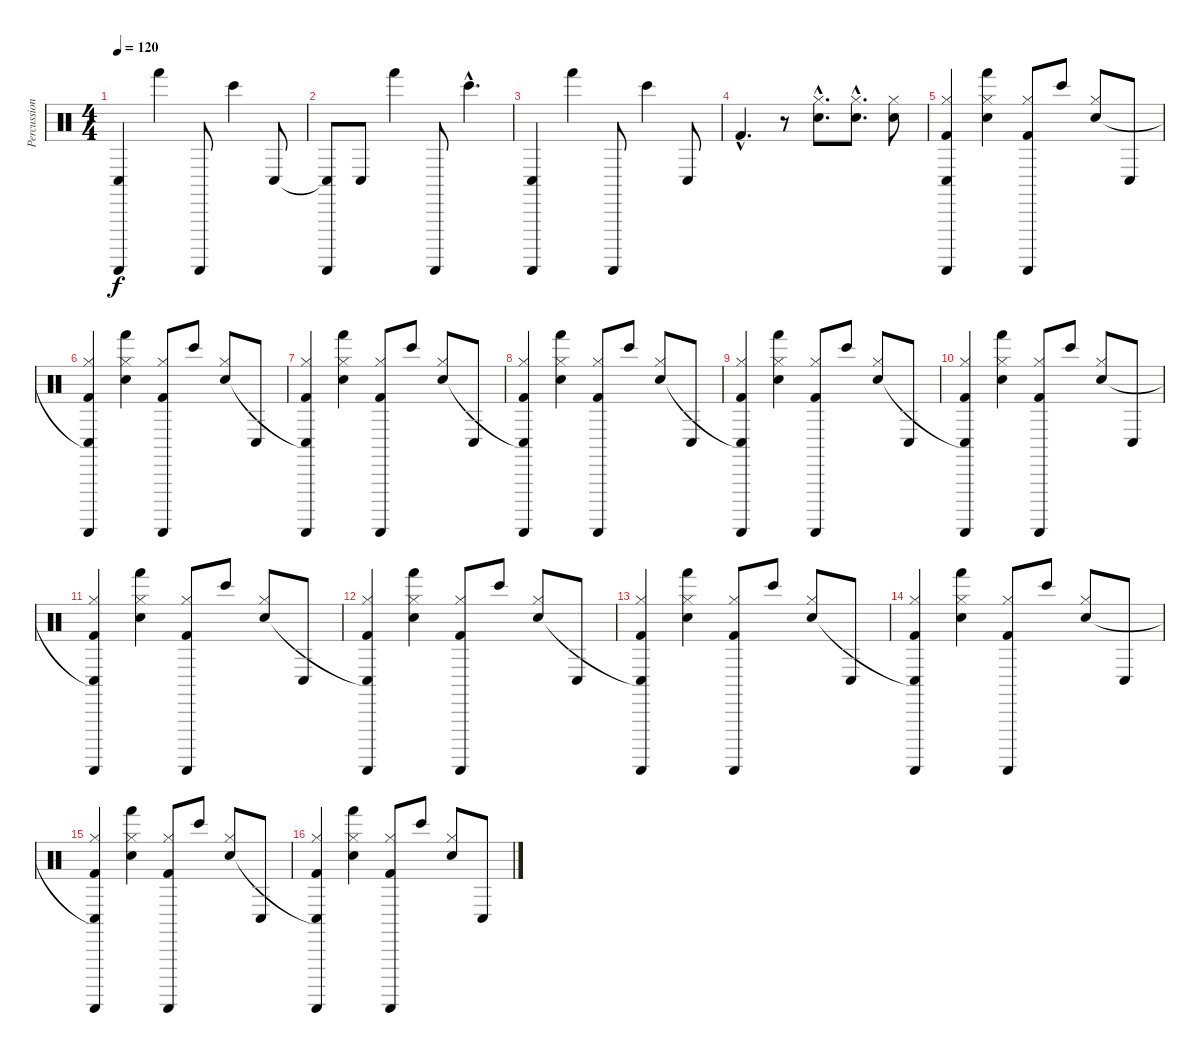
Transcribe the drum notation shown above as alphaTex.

\track ("Percussions" "Percussion") {instrument percussion}
\staff {score}
\articulation defaults
\ts (4 4)
\tempo 120
\clef neutral
\ks c
("Conga low (hit)" "Guiro (scrap-return)").4{dy f} "Hand (hit)".4 "Guiro (scrap-return)".8 "Bongo High (hit)".4 "Conga low (hit)".8 |
("Conga low (hit)"{t} "Guiro (scrap-return)").8 "Conga low (hit)".8 "Hand (hit)".4 "Guiro (scrap-return)".8 "Bongo High (hit)"{hac}.4{d} |
("Conga low (hit)" "Guiro (scrap-return)").4 "Hand (hit)".4 "Guiro (scrap-return)".8 "Bongo High (hit)".4 "Conga low (hit)".8 |
"Kick (hit) 2"{hac}.4{d} r.8 ("Hi-Hat (closed)"{hac} "Snare (hit) 2"{hac}).8{d} ("Hi-Hat (closed)"{hac} "Snare (hit) 2"{hac}).8{d} ("Hi-Hat (closed)" "Snare (hit) 2").8 |
("Hi-Hat (closed)" "Conga low (hit)" "Guiro (scrap-return)" "Kick (hit) 2").4 ("Hi-Hat (closed)" "Hand (hit)" "Snare (hit) 2").4 ("Hi-Hat (closed)" "Guiro (scrap-return)" "Kick (hit) 2").8 "Bongo High (hit)".8 ("Hi-Hat (closed)" "Snare (hit) 2").8 "Conga low (hit)".8 |
("Hi-Hat (closed)" "Conga low (hit)"{t} "Guiro (scrap-return)" "Kick (hit) 2").4 ("Hi-Hat (closed)" "Hand (hit)" "Snare (hit) 2").4 ("Hi-Hat (closed)" "Guiro (scrap-return)" "Kick (hit) 2").8 "Bongo High (hit)".8 ("Hi-Hat (closed)" "Snare (hit) 2").8 "Conga low (hit)".8 |
("Hi-Hat (closed)" "Conga low (hit)"{t} "Guiro (scrap-return)" "Kick (hit) 2").4 ("Hi-Hat (closed)" "Hand (hit)" "Snare (hit) 2").4 ("Hi-Hat (closed)" "Guiro (scrap-return)" "Kick (hit) 2").8 "Bongo High (hit)".8 ("Hi-Hat (closed)" "Snare (hit) 2").8 "Conga low (hit)".8 |
("Hi-Hat (closed)" "Conga low (hit)"{t} "Guiro (scrap-return)" "Kick (hit) 2").4 ("Hi-Hat (closed)" "Hand (hit)" "Snare (hit) 2").4 ("Hi-Hat (closed)" "Guiro (scrap-return)" "Kick (hit) 2").8 "Bongo High (hit)".8 ("Hi-Hat (closed)" "Snare (hit) 2").8 "Conga low (hit)".8 |
("Hi-Hat (closed)" "Conga low (hit)"{t} "Guiro (scrap-return)" "Kick (hit) 2").4 ("Hi-Hat (closed)" "Hand (hit)" "Snare (hit) 2").4 ("Hi-Hat (closed)" "Guiro (scrap-return)" "Kick (hit) 2").8 "Bongo High (hit)".8 ("Hi-Hat (closed)" "Snare (hit) 2").8 "Conga low (hit)".8 |
("Hi-Hat (closed)" "Conga low (hit)"{t} "Guiro (scrap-return)" "Kick (hit) 2").4 ("Hi-Hat (closed)" "Hand (hit)" "Snare (hit) 2").4 ("Hi-Hat (closed)" "Guiro (scrap-return)" "Kick (hit) 2").8 "Bongo High (hit)".8 ("Hi-Hat (closed)" "Snare (hit) 2").8 "Conga low (hit)".8 |
("Hi-Hat (closed)" "Conga low (hit)"{t} "Guiro (scrap-return)" "Kick (hit) 2").4 ("Hi-Hat (closed)" "Hand (hit)" "Snare (hit) 2").4 ("Hi-Hat (closed)" "Guiro (scrap-return)" "Kick (hit) 2").8 "Bongo High (hit)".8 ("Hi-Hat (closed)" "Snare (hit) 2").8 "Conga low (hit)".8 |
("Hi-Hat (closed)" "Conga low (hit)"{t} "Guiro (scrap-return)" "Kick (hit) 2").4 ("Hi-Hat (closed)" "Hand (hit)" "Snare (hit) 2").4 ("Hi-Hat (closed)" "Guiro (scrap-return)" "Kick (hit) 2").8 "Bongo High (hit)".8 ("Hi-Hat (closed)" "Snare (hit) 2").8 "Conga low (hit)".8 |
("Hi-Hat (closed)" "Conga low (hit)"{t} "Guiro (scrap-return)" "Kick (hit) 2").4 ("Hi-Hat (closed)" "Hand (hit)" "Snare (hit) 2").4 ("Hi-Hat (closed)" "Guiro (scrap-return)" "Kick (hit) 2").8 "Bongo High (hit)".8 ("Hi-Hat (closed)" "Snare (hit) 2").8 "Conga low (hit)".8 |
("Hi-Hat (closed)" "Conga low (hit)"{t} "Guiro (scrap-return)" "Kick (hit) 2").4 ("Hi-Hat (closed)" "Hand (hit)" "Snare (hit) 2").4 ("Hi-Hat (closed)" "Guiro (scrap-return)" "Kick (hit) 2").8 "Bongo High (hit)".8 ("Hi-Hat (closed)" "Snare (hit) 2").8 "Conga low (hit)".8 |
("Hi-Hat (closed)" "Conga low (hit)"{t} "Guiro (scrap-return)" "Kick (hit) 2").4 ("Hi-Hat (closed)" "Hand (hit)" "Snare (hit) 2").4 ("Hi-Hat (closed)" "Guiro (scrap-return)" "Kick (hit) 2").8 "Bongo High (hit)".8 ("Hi-Hat (closed)" "Snare (hit) 2").8 "Conga low (hit)".8 |
("Hi-Hat (closed)" "Conga low (hit)"{t} "Guiro (scrap-return)" "Kick (hit) 2").4 ("Hi-Hat (closed)" "Hand (hit)" "Snare (hit) 2").4 ("Hi-Hat (closed)" "Guiro (scrap-return)" "Kick (hit) 2").8 "Bongo High (hit)".8 ("Hi-Hat (closed)" "Snare (hit) 2").8 "Conga low (hit)".8
